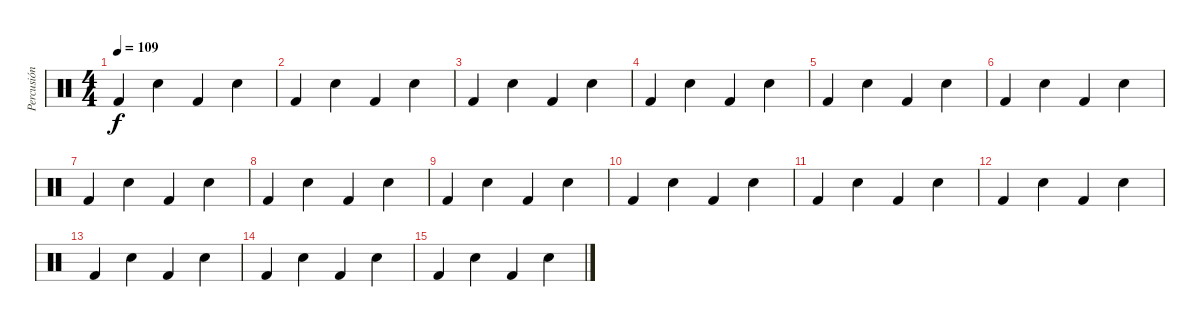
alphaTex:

\track ("Percusión" "Percusión") {instrument percussion}
\staff {score}
\articulation defaults
\ts (4 4)
\tempo 109
\clef neutral
\ks c "Kick (hit) 2".4{dy f} "Snare (hit) 2".4 "Kick (hit) 2".4 "Snare (hit) 2".4
|
"Kick (hit) 2".4 "Snare (hit) 2".4 "Kick (hit) 2".4 "Snare (hit) 2".4 |
"Kick (hit) 2".4 "Snare (hit) 2".4 "Kick (hit) 2".4 "Snare (hit) 2".4 |
"Kick (hit) 2".4 "Snare (hit) 2".4 "Kick (hit) 2".4 "Snare (hit) 2".4 |
"Kick (hit) 2".4 "Snare (hit) 2".4 "Kick (hit) 2".4 "Snare (hit) 2".4 |
"Kick (hit) 2".4 "Snare (hit) 2".4 "Kick (hit) 2".4 "Snare (hit) 2".4 |
"Kick (hit) 2".4 "Snare (hit) 2".4 "Kick (hit) 2".4 "Snare (hit) 2".4 |
"Kick (hit) 2".4 "Snare (hit) 2".4 "Kick (hit) 2".4 "Snare (hit) 2".4 |
"Kick (hit) 2".4 "Snare (hit) 2".4 "Kick (hit) 2".4 "Snare (hit) 2".4 |
"Kick (hit) 2".4 "Snare (hit) 2".4 "Kick (hit) 2".4 "Snare (hit) 2".4 |
"Kick (hit) 2".4 "Snare (hit) 2".4 "Kick (hit) 2".4 "Snare (hit) 2".4 |
"Kick (hit) 2".4 "Snare (hit) 2".4 "Kick (hit) 2".4 "Snare (hit) 2".4 |
"Kick (hit) 2".4 "Snare (hit) 2".4 "Kick (hit) 2".4 "Snare (hit) 2".4 |
"Kick (hit) 2".4 "Snare (hit) 2".4 "Kick (hit) 2".4 "Snare (hit) 2".4 |
"Kick (hit) 2".4 "Snare (hit) 2".4 "Kick (hit) 2".4 "Snare (hit) 2".4
